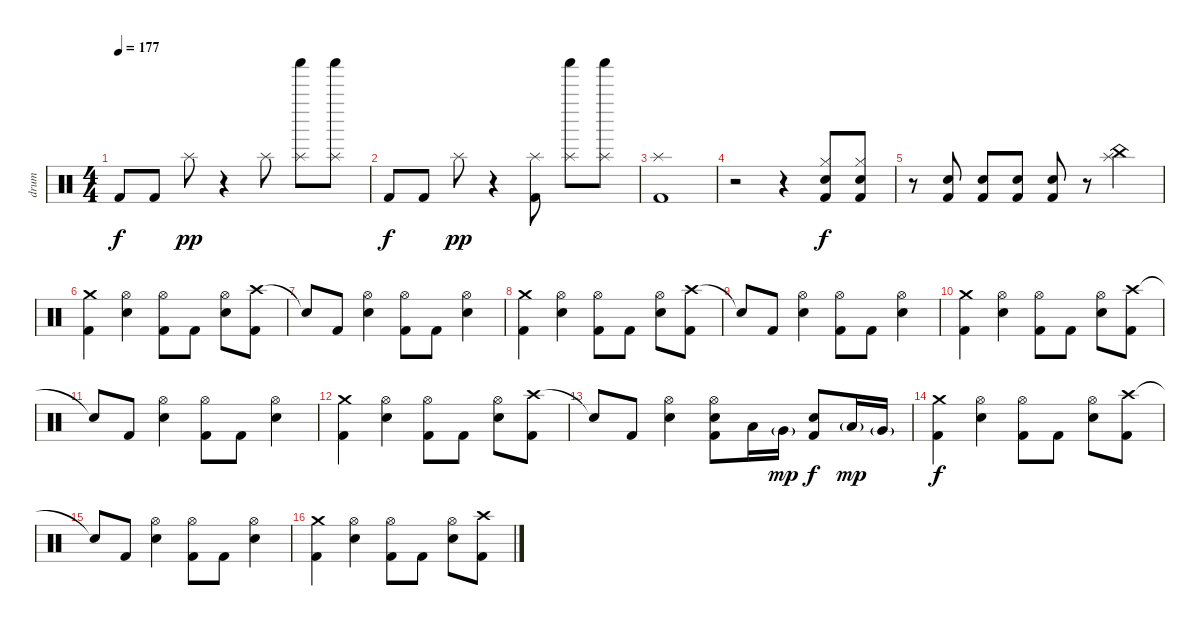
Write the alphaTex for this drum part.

\track ("drum" "drum") {instrument percussion}
\staff {score}
\articulation defaults
\ts (4 4)
\tempo 177
\clef neutral
\ks c "Kick (hit) 2".8{dy f} "Kick (hit) 2".8 "Splash (hit)".8{dy pp}
r.4 "Splash (hit)".8 ("Splash (hit)" "Shaker (hit)").8 ("Splash (hit)" "Shaker (hit)").8 |
"Kick (hit) 2".8{dy f} "Kick (hit) 2".8 "Splash (hit)".8{dy pp} r.4 ("Splash (hit)" "Kick (hit) 2").8 ("Splash (hit)" "Shaker (hit)").8 ("Splash (hit)" "Shaker (hit)").8 |
("Splash (hit)" "Kick (hit) 2").1 |
r.2 r.4 ("Hi-Hat (closed)" "Electric Snare (hit)" "Kick (hit) 2").8{dy f} ("Hi-Hat (closed)" "Electric Snare (hit)" "Kick (hit) 2").8 |
r.8 ("Electric Snare (hit)" "Kick (hit) 2").8 ("Electric Snare (hit)" "Kick (hit) 2").8 ("Electric Snare (hit)" "Kick (hit) 2").8 ("Electric Snare (hit)" "Kick (hit) 2").8 r.8 ("Splash (hit)" "China (hit)").4 |
\section ("" "")
("Crash medium (hit)" "Kick (hit) 2").4 ("Hi-Hat (open)" "Electric Snare (hit)").4 ("Hi-Hat (open)" "Kick (hit) 2").8 "Kick (hit) 2".8 ("Hi-Hat (open)" "Electric Snare (hit)").8 ("Crash high (hit)" "Kick (hit) 2").8 |
"Snare (hit)"{t}.8 "Kick (hit) 2".8 ("Hi-Hat (open)" "Electric Snare (hit)").4 ("Hi-Hat (open)" "Kick (hit) 2").8 "Kick (hit) 2".8 ("Hi-Hat (open)" "Electric Snare (hit)").4 |
("Crash medium (hit)" "Kick (hit) 2").4 ("Hi-Hat (open)" "Electric Snare (hit)").4 ("Hi-Hat (open)" "Kick (hit) 2").8 "Kick (hit) 2".8 ("Hi-Hat (open)" "Electric Snare (hit)").8 ("Crash high (hit)" "Kick (hit) 2").8 |
"Snare (hit)"{t}.8 "Kick (hit) 2".8 ("Hi-Hat (open)" "Electric Snare (hit)").4 ("Hi-Hat (open)" "Kick (hit) 2").8 "Kick (hit) 2".8 ("Hi-Hat (open)" "Electric Snare (hit)").4 |
("Crash medium (hit)" "Kick (hit) 2").4 ("Hi-Hat (open)" "Electric Snare (hit)").4 ("Hi-Hat (open)" "Kick (hit) 2").8 "Kick (hit) 2".8 ("Hi-Hat (open)" "Electric Snare (hit)").8 ("Crash high (hit)" "Kick (hit) 2").8 |
"Snare (hit)"{t}.8 "Kick (hit) 2".8 ("Hi-Hat (open)" "Electric Snare (hit)").4 ("Hi-Hat (open)" "Kick (hit) 2").8 "Kick (hit) 2".8 ("Hi-Hat (open)" "Electric Snare (hit)").4 |
("Crash medium (hit)" "Kick (hit) 2").4 ("Hi-Hat (open)" "Electric Snare (hit)").4 ("Hi-Hat (open)" "Kick (hit) 2").8 "Kick (hit) 2".8 ("Hi-Hat (open)" "Electric Snare (hit)").8 ("Crash high (hit)" "Kick (hit) 2").8 |
"Snare (hit)"{t}.8 "Kick (hit) 2".8 ("Hi-Hat (open)" "Electric Snare (hit)").4 ("Hi-Hat (open)" "Electric Snare (hit)" "Kick (hit) 2").8 "Low Tom (hit)".16 "Very Low Tom (hit)"{g}.16{dy mp} ("Electric Snare (hit)" "Kick (hit) 2").8{dy f} "Low Tom (hit)"{g}.16{dy mp} "Very Low Tom (hit)"{g}.16 |
("Crash medium (hit)" "Kick (hit) 2").4{dy f} ("Hi-Hat (open)" "Electric Snare (hit)").4 ("Hi-Hat (open)" "Kick (hit) 2").8 "Kick (hit) 2".8 ("Hi-Hat (open)" "Electric Snare (hit)").8 ("Crash high (hit)" "Kick (hit) 2").8 |
"Snare (hit)"{t}.8 "Kick (hit) 2".8 ("Hi-Hat (open)" "Electric Snare (hit)").4 ("Hi-Hat (open)" "Kick (hit) 2").8 "Kick (hit) 2".8 ("Hi-Hat (open)" "Electric Snare (hit)").4 |
("Crash medium (hit)" "Kick (hit) 2").4 ("Hi-Hat (open)" "Electric Snare (hit)").4 ("Hi-Hat (open)" "Kick (hit) 2").8 "Kick (hit) 2".8 ("Hi-Hat (open)" "Electric Snare (hit)").8 ("Crash high (hit)" "Kick (hit) 2").8
